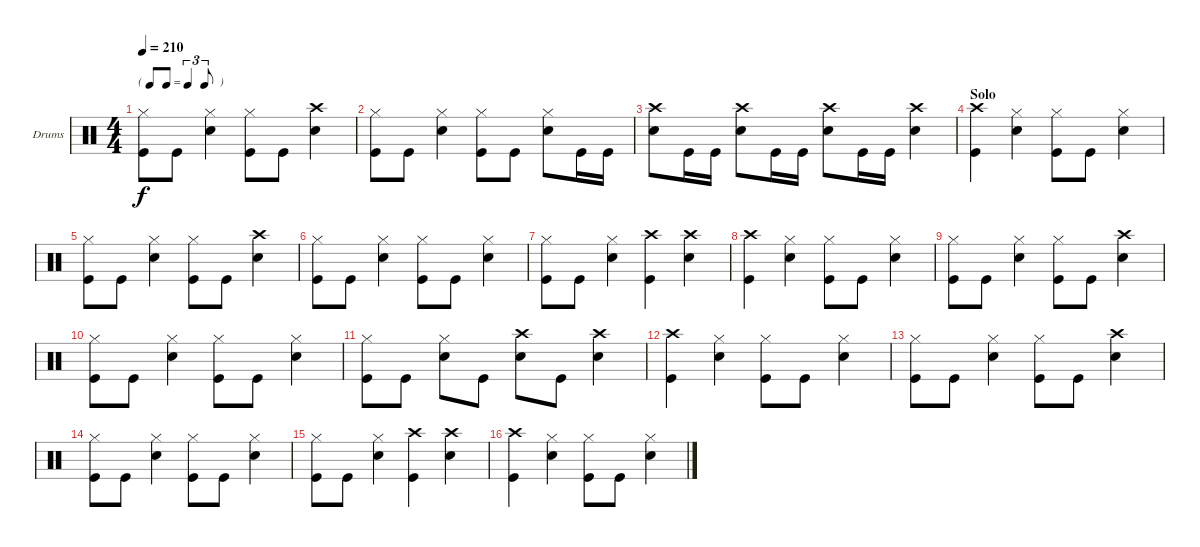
\bracketExtendMode groupsimilarinstruments
\firstSystemTrackNameOrientation horizontal
\otherSystemsTrackNameOrientation horizontal
\track ("Drums" "Drums") {instrument percussion}
\staff {score}
\articulation defaults
\ts (4 4)
\tf triplet8th
\tempo 210
\clef neutral
\ks c
("Hi-Hat (closed)" "Kick (hit)").8{dy f} "Kick (hit)".8 ("Snare (hit) 2" "Hi-Hat (closed)").4 ("Hi-Hat (closed)" "Kick (hit)").8 "Kick (hit)".8 ("Crash high (hit)" "Snare (hit) 2").4 |
("Hi-Hat (closed)" "Kick (hit)").8 "Kick (hit)".8 ("Snare (hit) 2" "Hi-Hat (closed)").4 ("Hi-Hat (closed)" "Kick (hit)").8 "Kick (hit)".8 ("Snare (hit) 2" "Hi-Hat (closed)").8 "Kick (hit)".16 "Kick (hit)".16 |
("Crash high (hit)" "Snare (hit) 2").8 "Kick (hit)".16 "Kick (hit)".16 ("Crash high (hit)" "Snare (hit) 2").8 "Kick (hit)".16 "Kick (hit)".16 ("Crash high (hit)" "Snare (hit) 2").8 "Kick (hit)".16 "Kick (hit)".16 ("Snare (hit) 2" "Crash high (hit)").4 |
\section ("" "Solo")
("Kick (hit)" "Crash high (hit)").4 ("Hi-Hat (closed)" "Snare (hit) 2").4 ("Hi-Hat (closed)" "Kick (hit)").8 "Kick (hit)".8 ("Snare (hit) 2" "Hi-Hat (closed)").4 |
("Hi-Hat (closed)" "Kick (hit)").8 "Kick (hit)".8 ("Snare (hit) 2" "Hi-Hat (closed)").4 ("Hi-Hat (closed)" "Kick (hit)").8 "Kick (hit)".8 ("Crash high (hit)" "Snare (hit) 2").4 |
("Hi-Hat (closed)" "Kick (hit)").8 "Kick (hit)".8 ("Snare (hit) 2" "Hi-Hat (closed)").4 ("Hi-Hat (closed)" "Kick (hit)").8 "Kick (hit)".8 ("Snare (hit) 2" "Hi-Hat (closed)").4 |
("Hi-Hat (closed)" "Kick (hit)").8 "Kick (hit)".8 ("Snare (hit) 2" "Hi-Hat (closed)").4 ("Crash high (hit)" "Kick (hit)").4 ("Crash high (hit)" "Snare (hit) 2").4 |
("Kick (hit)" "Crash high (hit)").4 ("Hi-Hat (closed)" "Snare (hit) 2").4 ("Hi-Hat (closed)" "Kick (hit)").8 "Kick (hit)".8 ("Snare (hit) 2" "Hi-Hat (closed)").4 |
("Hi-Hat (closed)" "Kick (hit)").8 "Kick (hit)".8 ("Snare (hit) 2" "Hi-Hat (closed)").4 ("Hi-Hat (closed)" "Kick (hit)").8 "Kick (hit)".8 ("Crash high (hit)" "Snare (hit) 2").4 |
("Hi-Hat (closed)" "Kick (hit)").8 "Kick (hit)".8 ("Snare (hit) 2" "Hi-Hat (closed)").4 ("Hi-Hat (closed)" "Kick (hit)").8 "Kick (hit)".8 ("Snare (hit) 2" "Hi-Hat (closed)").4 |
("Hi-Hat (closed)" "Kick (hit)").8 "Kick (hit)".8 ("Snare (hit) 2" "Hi-Hat (closed)").8 "Kick (hit)".8 ("Snare (hit) 2" "Crash high (hit)").8 "Kick (hit)".8 ("Crash high (hit)" "Snare (hit) 2").4 |
("Kick (hit)" "Crash high (hit)").4 ("Hi-Hat (closed)" "Snare (hit) 2").4 ("Hi-Hat (closed)" "Kick (hit)").8 "Kick (hit)".8 ("Snare (hit) 2" "Hi-Hat (closed)").4 |
("Hi-Hat (closed)" "Kick (hit)").8 "Kick (hit)".8 ("Snare (hit) 2" "Hi-Hat (closed)").4 ("Hi-Hat (closed)" "Kick (hit)").8 "Kick (hit)".8 ("Crash high (hit)" "Snare (hit) 2").4 |
("Hi-Hat (closed)" "Kick (hit)").8 "Kick (hit)".8 ("Snare (hit) 2" "Hi-Hat (closed)").4 ("Hi-Hat (closed)" "Kick (hit)").8 "Kick (hit)".8 ("Snare (hit) 2" "Hi-Hat (closed)").4 |
("Hi-Hat (closed)" "Kick (hit)").8 "Kick (hit)".8 ("Snare (hit) 2" "Hi-Hat (closed)").4 ("Crash high (hit)" "Kick (hit)").4 ("Crash high (hit)" "Snare (hit) 2").4 |
("Kick (hit)" "Crash high (hit)").4 ("Hi-Hat (closed)" "Snare (hit) 2").4 ("Hi-Hat (closed)" "Kick (hit)").8 "Kick (hit)".8 ("Snare (hit) 2" "Hi-Hat (closed)").4
